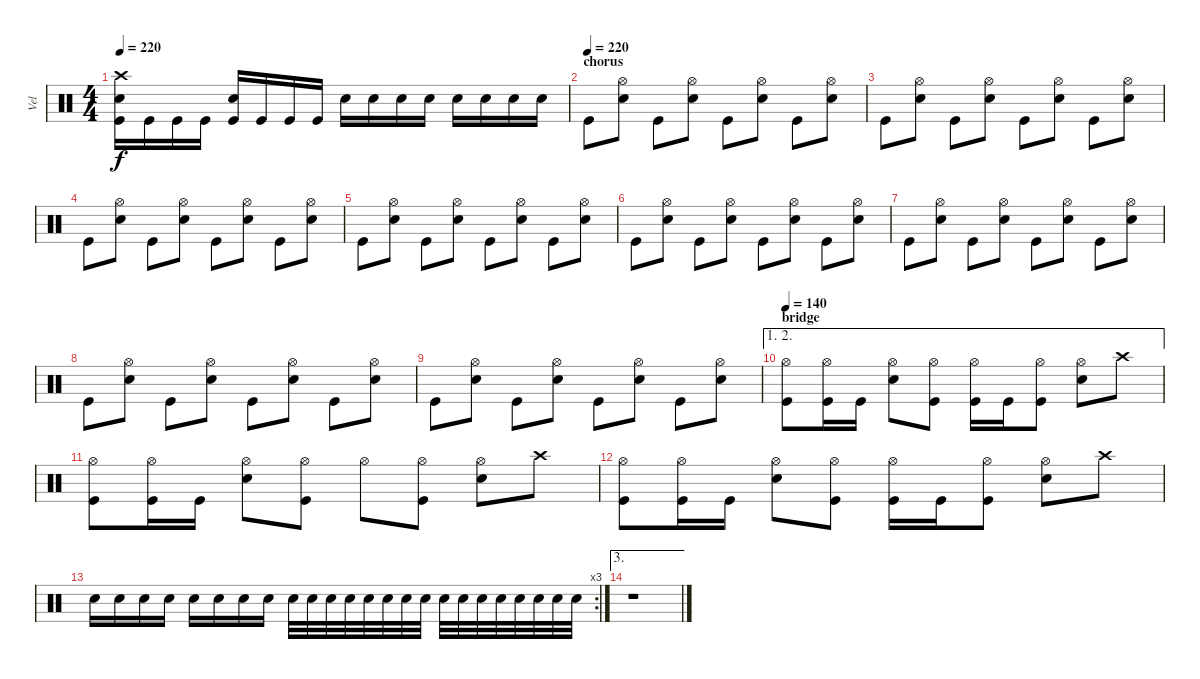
\track ("Vel" "Vel") {instrument percussion}
\staff {score}
\articulation defaults
\ts (4 4)
\tempo 220
\clef neutral
\ks c
("Crash high (hit)" "Electric Snare (hit)" "Kick (hit)").16{dy f} "Kick (hit)".16 "Kick (hit)".16 "Kick (hit)".16 ("Electric Snare (hit)" "Kick (hit)").16 "Kick (hit)".16 "Kick (hit)".16 "Kick (hit)".16 "Electric Snare (hit)".16 "Electric Snare (hit)".16 "Electric Snare (hit)".16 "Electric Snare (hit)".16 "Electric Snare (hit)".16 "Electric Snare (hit)".16 "Electric Snare (hit)".16 "Electric Snare (hit)".16 |
\section ("" "chorus")
\tempo (220)
"Kick (hit)".8 ("Hi-Hat (open)" "Electric Snare (hit)").8 "Kick (hit)".8 ("Hi-Hat (open)" "Electric Snare (hit)").8 "Kick (hit)".8 ("Hi-Hat (open)" "Electric Snare (hit)").8 "Kick (hit)".8 ("Hi-Hat (open)" "Electric Snare (hit)").8 |
"Kick (hit)".8 ("Hi-Hat (open)" "Electric Snare (hit)").8 "Kick (hit)".8 ("Hi-Hat (open)" "Electric Snare (hit)").8 "Kick (hit)".8 ("Hi-Hat (open)" "Electric Snare (hit)").8 "Kick (hit)".8 ("Hi-Hat (open)" "Electric Snare (hit)").8 |
"Kick (hit)".8 ("Hi-Hat (open)" "Electric Snare (hit)").8 "Kick (hit)".8 ("Hi-Hat (open)" "Electric Snare (hit)").8 "Kick (hit)".8 ("Hi-Hat (open)" "Electric Snare (hit)").8 "Kick (hit)".8 ("Hi-Hat (open)" "Electric Snare (hit)").8 |
"Kick (hit)".8 ("Hi-Hat (open)" "Electric Snare (hit)").8 "Kick (hit)".8 ("Hi-Hat (open)" "Electric Snare (hit)").8 "Kick (hit)".8 ("Hi-Hat (open)" "Electric Snare (hit)").8 "Kick (hit)".8 ("Hi-Hat (open)" "Electric Snare (hit)").8 |
"Kick (hit)".8 ("Hi-Hat (open)" "Electric Snare (hit)").8 "Kick (hit)".8 ("Hi-Hat (open)" "Electric Snare (hit)").8 "Kick (hit)".8 ("Hi-Hat (open)" "Electric Snare (hit)").8 "Kick (hit)".8 ("Hi-Hat (open)" "Electric Snare (hit)").8 |
"Kick (hit)".8 ("Hi-Hat (open)" "Electric Snare (hit)").8 "Kick (hit)".8 ("Hi-Hat (open)" "Electric Snare (hit)").8 "Kick (hit)".8 ("Hi-Hat (open)" "Electric Snare (hit)").8 "Kick (hit)".8 ("Hi-Hat (open)" "Electric Snare (hit)").8 |
"Kick (hit)".8 ("Hi-Hat (open)" "Electric Snare (hit)").8 "Kick (hit)".8 ("Hi-Hat (open)" "Electric Snare (hit)").8 "Kick (hit)".8 ("Hi-Hat (open)" "Electric Snare (hit)").8 "Kick (hit)".8 ("Hi-Hat (open)" "Electric Snare (hit)").8 |
"Kick (hit)".8 ("Hi-Hat (open)" "Electric Snare (hit)").8 "Kick (hit)".8 ("Hi-Hat (open)" "Electric Snare (hit)").8 "Kick (hit)".8 ("Hi-Hat (open)" "Electric Snare (hit)").8 "Kick (hit)".8 ("Hi-Hat (open)" "Electric Snare (hit)").8 |
\ae (1 2)
\section ("" "bridge")
\tempo 140
("Hi-Hat (open)" "Kick (hit)").8 ("Hi-Hat (open)" "Kick (hit)").16 "Kick (hit)".16 ("Hi-Hat (open)" "Electric Snare (hit)").8 ("Hi-Hat (open)" "Kick (hit)").8 ("Hi-Hat (open)" "Kick (hit)").16 "Kick (hit)".16 ("Hi-Hat (open)" "Kick (hit)").8 ("Hi-Hat (open)" "Electric Snare (hit)").8 "Crash high (hit)".8 |
("Hi-Hat (open)" "Kick (hit)").8 ("Hi-Hat (open)" "Kick (hit)").16 "Kick (hit)".16 ("Hi-Hat (open)" "Electric Snare (hit)").8 ("Hi-Hat (open)" "Kick (hit)").8 "Hi-Hat (open)".8 ("Hi-Hat (open)" "Kick (hit)").8 ("Hi-Hat (open)" "Electric Snare (hit)").8 "Crash high (hit)".8 |
("Hi-Hat (open)" "Kick (hit)").8 ("Hi-Hat (open)" "Kick (hit)").16 "Kick (hit)".16 ("Hi-Hat (open)" "Electric Snare (hit)").8 ("Hi-Hat (open)" "Kick (hit)").8 ("Hi-Hat (open)" "Kick (hit)").16 "Kick (hit)".16 ("Hi-Hat (open)" "Kick (hit)").8 ("Hi-Hat (open)" "Electric Snare (hit)").8 "Crash high (hit)".8 |
\rc 3 "Electric Snare (hit)".16 "Electric Snare (hit)".16 "Electric Snare (hit)".16 "Electric Snare (hit)".16 "Electric Snare (hit)".16 "Electric Snare (hit)".16 "Electric Snare (hit)".16 "Electric Snare (hit)".16 "Electric Snare (hit)".32 "Electric Snare (hit)".32 "Electric Snare (hit)".32 "Electric Snare (hit)".32 "Electric Snare (hit)".32 "Electric Snare (hit)".32 "Electric Snare (hit)".32 "Electric Snare (hit)".32 "Electric Snare (hit)".32 "Electric Snare (hit)".32 "Electric Snare (hit)".32 "Electric Snare (hit)".32 "Electric Snare (hit)".32 "Electric Snare (hit)".32 "Electric Snare (hit)".32 "Electric Snare (hit)".32
|
\ae 3
r.1
